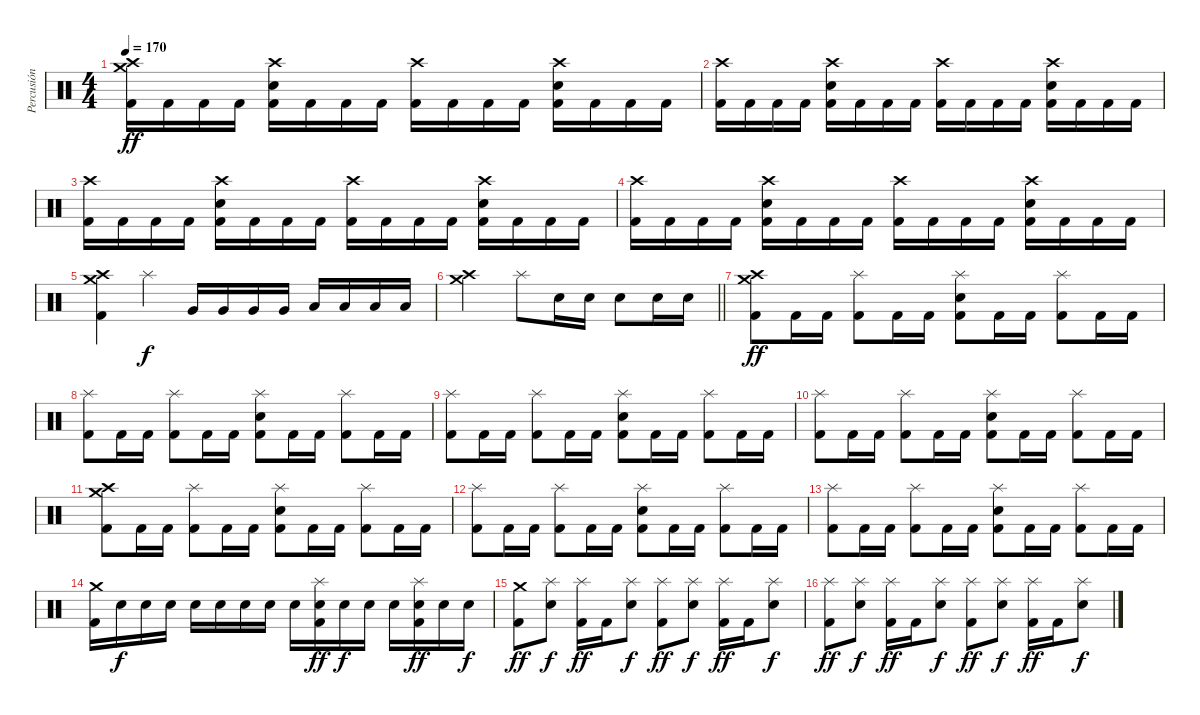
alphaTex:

\track ("Percusión" "Percusión") {instrument percussion}
\staff {score}
\articulation defaults
\ts (4 4)
\tempo 170
\clef neutral
\ks c
("Crash medium (hit)" "Crash high (hit)" "Kick (hit) 2").16{dy ff} "Kick (hit) 2".16 "Kick (hit) 2".16 "Kick (hit) 2".16 ("Crash high (hit)" "Snare (hit) 2" "Kick (hit) 2").16 "Kick (hit) 2".16 "Kick (hit) 2".16 "Kick (hit) 2".16 ("Crash high (hit)" "Kick (hit) 2").16 "Kick (hit) 2".16 "Kick (hit) 2".16 "Kick (hit) 2".16 ("Crash high (hit)" "Snare (hit) 2" "Kick (hit) 2").16 "Kick (hit) 2".16 "Kick (hit) 2".16 "Kick (hit) 2".16 |
("Crash high (hit)" "Kick (hit) 2").16 "Kick (hit) 2".16 "Kick (hit) 2".16 "Kick (hit) 2".16 ("Crash high (hit)" "Snare (hit) 2" "Kick (hit) 2").16 "Kick (hit) 2".16 "Kick (hit) 2".16 "Kick (hit) 2".16 ("Crash high (hit)" "Kick (hit) 2").16 "Kick (hit) 2".16 "Kick (hit) 2".16 "Kick (hit) 2".16 ("Crash high (hit)" "Snare (hit) 2" "Kick (hit) 2").16 "Kick (hit) 2".16 "Kick (hit) 2".16 "Kick (hit) 2".16 |
("Crash high (hit)" "Kick (hit) 2").16 "Kick (hit) 2".16 "Kick (hit) 2".16 "Kick (hit) 2".16 ("Crash high (hit)" "Snare (hit) 2" "Kick (hit) 2").16 "Kick (hit) 2".16 "Kick (hit) 2".16 "Kick (hit) 2".16 ("Crash high (hit)" "Kick (hit) 2").16 "Kick (hit) 2".16 "Kick (hit) 2".16 "Kick (hit) 2".16 ("Crash high (hit)" "Snare (hit) 2" "Kick (hit) 2").16 "Kick (hit) 2".16 "Kick (hit) 2".16 "Kick (hit) 2".16 |
("Crash high (hit)" "Kick (hit) 2").16 "Kick (hit) 2".16 "Kick (hit) 2".16 "Kick (hit) 2".16 ("Crash high (hit)" "Snare (hit) 2" "Kick (hit) 2").16 "Kick (hit) 2".16 "Kick (hit) 2".16 "Kick (hit) 2".16 ("Crash high (hit)" "Kick (hit) 2").16 "Kick (hit) 2".16 "Kick (hit) 2".16 "Kick (hit) 2".16 ("Crash high (hit)" "Snare (hit) 2" "Kick (hit) 2").16 "Kick (hit) 2".16 "Kick (hit) 2".16 "Kick (hit) 2".16 |
("Crash medium (hit)" "Crash high (hit)" "Kick (hit) 2").4 "Splash (hit)".4{dy f} "Very Low Tom (hit)".16 "Very Low Tom (hit)".16 "Very Low Tom (hit)".16 "Very Low Tom (hit)".16 "Low Floor Tom (hit)".16 "Low Floor Tom (hit)".16 "Low Floor Tom (hit)".16 "Low Floor Tom (hit)".16 |
\barLineRight lightlight
("Crash medium (hit)" "Crash high (hit)").2 "Splash (hit)".8 "Snare (hit) 2".16 "Snare (hit) 2".16 "Snare (hit) 2".8 "Snare (hit) 2".16 "Snare (hit) 2".16 |
("Crash medium (hit)" "Crash high (hit)" "Kick (hit) 2").8{dy ff} "Kick (hit) 2".16 "Kick (hit) 2".16 ("Splash (hit)" "Kick (hit) 2").8 "Kick (hit) 2".16 "Kick (hit) 2".16 ("Splash (hit)" "Snare (hit) 2" "Kick (hit) 2").8 "Kick (hit) 2".16 "Kick (hit) 2".16 ("Splash (hit)" "Kick (hit) 2").8 "Kick (hit) 2".16 "Kick (hit) 2".16 |
("Splash (hit)" "Kick (hit) 2").8 "Kick (hit) 2".16 "Kick (hit) 2".16 ("Splash (hit)" "Kick (hit) 2").8 "Kick (hit) 2".16 "Kick (hit) 2".16 ("Splash (hit)" "Snare (hit) 2" "Kick (hit) 2").8 "Kick (hit) 2".16 "Kick (hit) 2".16 ("Splash (hit)" "Kick (hit) 2").8 "Kick (hit) 2".16 "Kick (hit) 2".16 |
("Splash (hit)" "Kick (hit) 2").8 "Kick (hit) 2".16 "Kick (hit) 2".16 ("Splash (hit)" "Kick (hit) 2").8 "Kick (hit) 2".16 "Kick (hit) 2".16 ("Splash (hit)" "Snare (hit) 2" "Kick (hit) 2").8 "Kick (hit) 2".16 "Kick (hit) 2".16 ("Splash (hit)" "Kick (hit) 2").8 "Kick (hit) 2".16 "Kick (hit) 2".16 |
("Splash (hit)" "Kick (hit) 2").8 "Kick (hit) 2".16 "Kick (hit) 2".16 ("Splash (hit)" "Kick (hit) 2").8 "Kick (hit) 2".16 "Kick (hit) 2".16 ("Splash (hit)" "Snare (hit) 2" "Kick (hit) 2").8 "Kick (hit) 2".16 "Kick (hit) 2".16 ("Splash (hit)" "Kick (hit) 2").8 "Kick (hit) 2".16 "Kick (hit) 2".16 |
("Crash medium (hit)" "Crash high (hit)" "Kick (hit) 2").8 "Kick (hit) 2".16 "Kick (hit) 2".16 ("Splash (hit)" "Kick (hit) 2").8 "Kick (hit) 2".16 "Kick (hit) 2".16 ("Splash (hit)" "Snare (hit) 2" "Kick (hit) 2").8 "Kick (hit) 2".16 "Kick (hit) 2".16 ("Splash (hit)" "Kick (hit) 2").8 "Kick (hit) 2".16 "Kick (hit) 2".16 |
("Splash (hit)" "Kick (hit) 2").8 "Kick (hit) 2".16 "Kick (hit) 2".16 ("Splash (hit)" "Kick (hit) 2").8 "Kick (hit) 2".16 "Kick (hit) 2".16 ("Splash (hit)" "Snare (hit) 2" "Kick (hit) 2").8 "Kick (hit) 2".16 "Kick (hit) 2".16 ("Splash (hit)" "Kick (hit) 2").8 "Kick (hit) 2".16 "Kick (hit) 2".16 |
("Splash (hit)" "Kick (hit) 2").8 "Kick (hit) 2".16 "Kick (hit) 2".16 ("Splash (hit)" "Kick (hit) 2").8 "Kick (hit) 2".16 "Kick (hit) 2".16 ("Splash (hit)" "Snare (hit) 2" "Kick (hit) 2").8 "Kick (hit) 2".16 "Kick (hit) 2".16 ("Splash (hit)" "Kick (hit) 2").8 "Kick (hit) 2".16 "Kick (hit) 2".16 |
("Crash medium (hit)" "Kick (hit) 2").16 "Snare (hit) 2".16{dy f} "Snare (hit) 2".16 "Snare (hit) 2".16 "Snare (hit) 2".16 "Snare (hit) 2".16 "Snare (hit) 2".16 "Snare (hit) 2".16 "Snare (hit) 2".16 ("Splash (hit)" "Snare (hit) 2" "Kick (hit) 2").16{dy ff} "Snare (hit) 2".16{dy f} "Snare (hit) 2".16 "Snare (hit) 2".16 ("Splash (hit)" "Snare (hit) 2" "Kick (hit) 2").16{dy ff} "Snare (hit) 2".16 "Snare (hit) 2".16{dy f} |
("Crash medium (hit)" "Kick (hit) 2").8{dy ff} ("Splash (hit)" "Snare (hit) 2").8{dy f} ("Splash (hit)" "Kick (hit) 2").16{dy ff} "Kick (hit) 2".16 ("Splash (hit)" "Snare (hit) 2").8{dy f} ("Splash (hit)" "Kick (hit) 2").8{dy ff} ("Splash (hit)" "Snare (hit) 2").8{dy f} ("Splash (hit)" "Kick (hit) 2").16{dy ff} "Kick (hit) 2".16 ("Splash (hit)" "Snare (hit) 2").8{dy f} |
("Splash (hit)" "Kick (hit) 2").8{dy ff} ("Splash (hit)" "Snare (hit) 2").8{dy f} ("Splash (hit)" "Kick (hit) 2").16{dy ff} "Kick (hit) 2".16 ("Splash (hit)" "Snare (hit) 2").8{dy f} ("Splash (hit)" "Kick (hit) 2").8{dy ff} ("Splash (hit)" "Snare (hit) 2").8{dy f} ("Splash (hit)" "Kick (hit) 2").16{dy ff} "Kick (hit) 2".16 ("Splash (hit)" "Snare (hit) 2").8{dy f}
